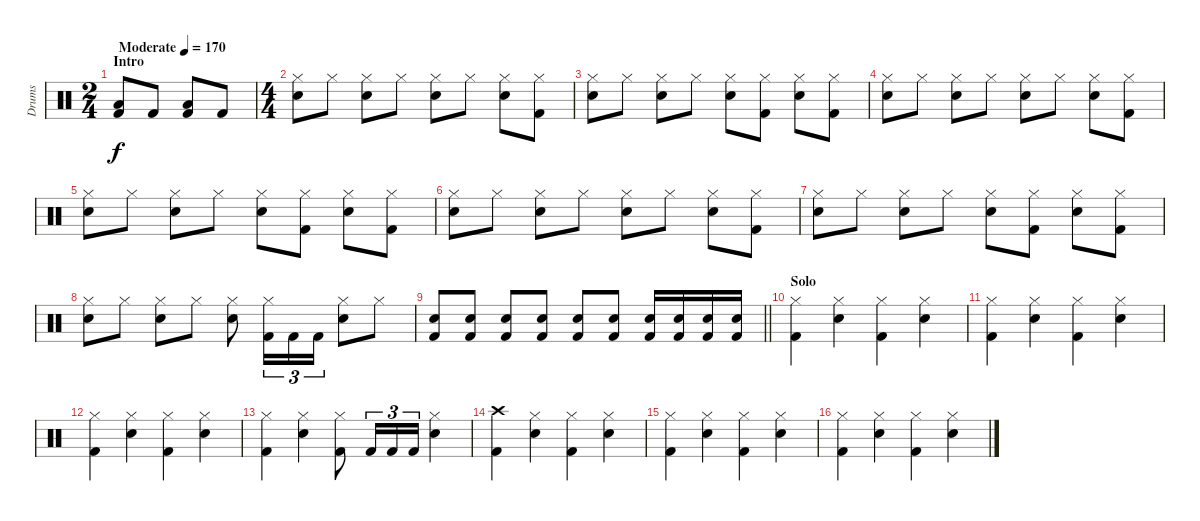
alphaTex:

\track ("Drums" "Drums") {instrument percussion}
\staff {score}
\articulation defaults
\ts (2 4)
\section ("" "Intro")
\tempo (170 "Moderate")
\clef neutral
\ks c
("Low Tom (hit)" "Kick (hit) 2").8{dy f} "Kick (hit) 2".8 ("Low Tom (hit)" "Kick (hit) 2").8 "Kick (hit) 2".8 |
\ts (4 4)
("Hi-Hat (closed)" "Snare (hit) 2").8 "Hi-Hat (closed)".8 ("Hi-Hat (closed)" "Snare (hit) 2").8 "Hi-Hat (closed)".8 ("Hi-Hat (closed)" "Snare (hit) 2").8 "Hi-Hat (closed)".8 ("Hi-Hat (closed)" "Snare (hit) 2").8 ("Hi-Hat (closed)" "Kick (hit) 2").8 |
("Hi-Hat (closed)" "Snare (hit) 2").8 "Hi-Hat (closed)".8 ("Hi-Hat (closed)" "Snare (hit) 2").8 "Hi-Hat (closed)".8 ("Hi-Hat (closed)" "Snare (hit) 2").8 ("Hi-Hat (closed)" "Kick (hit) 2").8 ("Hi-Hat (closed)" "Snare (hit) 2").8 ("Hi-Hat (closed)" "Kick (hit) 2").8 |
("Hi-Hat (closed)" "Snare (hit) 2").8 "Hi-Hat (closed)".8 ("Hi-Hat (closed)" "Snare (hit) 2").8 "Hi-Hat (closed)".8 ("Hi-Hat (closed)" "Snare (hit) 2").8 "Hi-Hat (closed)".8 ("Hi-Hat (closed)" "Snare (hit) 2").8 ("Hi-Hat (closed)" "Kick (hit) 2").8 |
("Hi-Hat (closed)" "Snare (hit) 2").8 "Hi-Hat (closed)".8 ("Hi-Hat (closed)" "Snare (hit) 2").8 "Hi-Hat (closed)".8 ("Hi-Hat (closed)" "Snare (hit) 2").8 ("Hi-Hat (closed)" "Kick (hit) 2").8 ("Hi-Hat (closed)" "Snare (hit) 2").8 ("Hi-Hat (closed)" "Kick (hit) 2").8 |
("Hi-Hat (closed)" "Snare (hit) 2").8 "Hi-Hat (closed)".8 ("Hi-Hat (closed)" "Snare (hit) 2").8 "Hi-Hat (closed)".8 ("Hi-Hat (closed)" "Snare (hit) 2").8 "Hi-Hat (closed)".8 ("Hi-Hat (closed)" "Snare (hit) 2").8 ("Hi-Hat (closed)" "Kick (hit) 2").8 |
("Hi-Hat (closed)" "Snare (hit) 2").8 "Hi-Hat (closed)".8 ("Hi-Hat (closed)" "Snare (hit) 2").8 "Hi-Hat (closed)".8 ("Hi-Hat (closed)" "Snare (hit) 2").8 ("Hi-Hat (closed)" "Kick (hit) 2").8 ("Hi-Hat (closed)" "Snare (hit) 2").8 ("Hi-Hat (closed)" "Kick (hit) 2").8 |
("Hi-Hat (closed)" "Snare (hit) 2").8 "Hi-Hat (closed)".8 ("Hi-Hat (closed)" "Snare (hit) 2").8 "Hi-Hat (closed)".8 ("Hi-Hat (closed)" "Snare (hit) 2").8 ("Hi-Hat (closed)" "Kick (hit) 2").16{tu (3 2)} "Kick (hit) 2".16{tu (3 2)} "Kick (hit) 2".16{tu (3 2)} ("Hi-Hat (closed)" "Snare (hit) 2").8 "Hi-Hat (closed)".8 |
\barLineRight lightlight
("Snare (hit) 2" "Kick (hit) 2").8 ("Snare (hit) 2" "Kick (hit) 2").8 ("Snare (hit) 2" "Kick (hit) 2").8 ("Snare (hit) 2" "Kick (hit) 2").8 ("Snare (hit) 2" "Kick (hit) 2").8 ("Snare (hit) 2" "Kick (hit) 2").8 ("Snare (hit) 2" "Kick (hit) 2").16 ("Snare (hit) 2" "Kick (hit) 2").16 ("Snare (hit) 2" "Kick (hit) 2").16 ("Snare (hit) 2" "Kick (hit) 2").16 |
\section ("" "Solo")
("Hi-Hat (closed)" "Kick (hit) 2").4 ("Hi-Hat (closed)" "Snare (hit) 2").4 ("Hi-Hat (closed)" "Kick (hit) 2").4 ("Hi-Hat (closed)" "Snare (hit) 2").4 |
("Hi-Hat (closed)" "Kick (hit) 2").4 ("Hi-Hat (closed)" "Snare (hit) 2").4 ("Hi-Hat (closed)" "Kick (hit) 2").4 ("Hi-Hat (closed)" "Snare (hit) 2").4 |
("Hi-Hat (closed)" "Kick (hit) 2").4 ("Hi-Hat (closed)" "Snare (hit) 2").4 ("Hi-Hat (closed)" "Kick (hit) 2").4 ("Hi-Hat (closed)" "Snare (hit) 2").4 |
("Hi-Hat (closed)" "Kick (hit) 2").4 ("Hi-Hat (closed)" "Snare (hit) 2").4 ("Hi-Hat (closed)" "Kick (hit) 2").8 "Kick (hit) 2".16{tu (3 2)} "Kick (hit) 2".16{tu (3 2)} "Kick (hit) 2".16{tu (3 2)} ("Hi-Hat (closed)" "Snare (hit) 2").4 |
("Crash high (hit)" "Kick (hit) 2").4 ("Hi-Hat (closed)" "Snare (hit) 2").4 ("Hi-Hat (closed)" "Kick (hit) 2").4 ("Hi-Hat (closed)" "Snare (hit) 2").4 |
("Hi-Hat (closed)" "Kick (hit) 2").4 ("Hi-Hat (closed)" "Snare (hit) 2").4 ("Hi-Hat (closed)" "Kick (hit) 2").4 ("Hi-Hat (closed)" "Snare (hit) 2").4 |
("Hi-Hat (closed)" "Kick (hit) 2").4 ("Hi-Hat (closed)" "Snare (hit) 2").4 ("Hi-Hat (closed)" "Kick (hit) 2").4 ("Hi-Hat (closed)" "Snare (hit) 2").4
